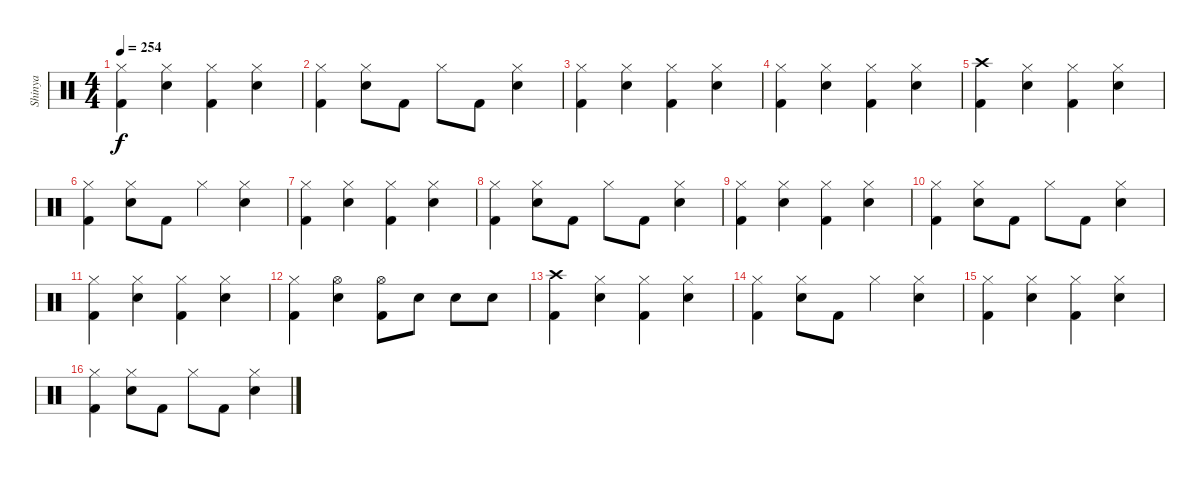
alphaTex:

\track ("Shinya" "Shinya") {instrument percussion}
\staff {score}
\articulation defaults
\ts (4 4)
\tempo 254
\clef neutral
\ks c
("Hi-Hat (closed)" "Kick (hit) 2").4{dy f} ("Electric Snare (hit)" "Hi-Hat (closed)").4 ("Hi-Hat (closed)" "Kick (hit) 2").4 ("Electric Snare (hit)" "Hi-Hat (closed)").4 |
("Hi-Hat (closed)" "Kick (hit) 2").4 ("Electric Snare (hit)" "Hi-Hat (closed)").8 "Kick (hit) 2".8 "Hi-Hat (closed)".8 "Kick (hit) 2".8 ("Electric Snare (hit)" "Hi-Hat (closed)").4 |
("Hi-Hat (closed)" "Kick (hit) 2").4 ("Electric Snare (hit)" "Hi-Hat (closed)").4 ("Hi-Hat (closed)" "Kick (hit) 2").4 ("Electric Snare (hit)" "Hi-Hat (closed)").4 |
("Hi-Hat (closed)" "Kick (hit) 2").4 ("Electric Snare (hit)" "Hi-Hat (closed)").4 ("Hi-Hat (closed)" "Kick (hit) 2").4 ("Electric Snare (hit)" "Hi-Hat (closed)").4 |
("Kick (hit) 2" "Crash high (hit)").4 ("Electric Snare (hit)" "Hi-Hat (closed)").4 ("Hi-Hat (closed)" "Kick (hit) 2").4 ("Electric Snare (hit)" "Hi-Hat (closed)").4 |
("Hi-Hat (closed)" "Kick (hit) 2").4 ("Hi-Hat (closed)" "Electric Snare (hit)").8 "Kick (hit) 2".8 "Hi-Hat (closed)".4 ("Electric Snare (hit)" "Hi-Hat (closed)").4 |
("Hi-Hat (closed)" "Kick (hit) 2").4 ("Electric Snare (hit)" "Hi-Hat (closed)").4 ("Hi-Hat (closed)" "Kick (hit) 2").4 ("Electric Snare (hit)" "Hi-Hat (closed)").4 |
("Hi-Hat (closed)" "Kick (hit) 2").4 ("Electric Snare (hit)" "Hi-Hat (closed)").8 "Kick (hit) 2".8 "Hi-Hat (closed)".8 "Kick (hit) 2".8 ("Electric Snare (hit)" "Hi-Hat (closed)").4 |
("Hi-Hat (closed)" "Kick (hit) 2").4 ("Electric Snare (hit)" "Hi-Hat (closed)").4 ("Hi-Hat (closed)" "Kick (hit) 2").4 ("Electric Snare (hit)" "Hi-Hat (closed)").4 |
("Hi-Hat (closed)" "Kick (hit) 2").4 ("Electric Snare (hit)" "Hi-Hat (closed)").8 "Kick (hit) 2".8 "Hi-Hat (closed)".8 "Kick (hit) 2".8 ("Electric Snare (hit)" "Hi-Hat (closed)").4 |
("Hi-Hat (closed)" "Kick (hit) 2").4 ("Electric Snare (hit)" "Hi-Hat (closed)").4 ("Hi-Hat (closed)" "Kick (hit) 2").4 ("Electric Snare (hit)" "Hi-Hat (closed)").4 |
("Hi-Hat (closed)" "Kick (hit) 2").4 ("Hi-Hat (open)" "Electric Snare (hit)").4 ("Kick (hit) 2" "Hi-Hat (open)").8 "Electric Snare (hit)".8 "Electric Snare (hit)".8 "Electric Snare (hit)".8 |
("Kick (hit) 2" "Crash high (hit)").4 ("Electric Snare (hit)" "Hi-Hat (closed)").4 ("Hi-Hat (closed)" "Kick (hit) 2").4 ("Electric Snare (hit)" "Hi-Hat (closed)").4 |
("Hi-Hat (closed)" "Kick (hit) 2").4 ("Hi-Hat (closed)" "Electric Snare (hit)").8 "Kick (hit) 2".8 "Hi-Hat (closed)".4 ("Electric Snare (hit)" "Hi-Hat (closed)").4 |
("Hi-Hat (closed)" "Kick (hit) 2").4 ("Electric Snare (hit)" "Hi-Hat (closed)").4 ("Hi-Hat (closed)" "Kick (hit) 2").4 ("Electric Snare (hit)" "Hi-Hat (closed)").4 |
("Hi-Hat (closed)" "Kick (hit) 2").4 ("Electric Snare (hit)" "Hi-Hat (closed)").8 "Kick (hit) 2".8 "Hi-Hat (closed)".8 "Kick (hit) 2".8 ("Electric Snare (hit)" "Hi-Hat (closed)").4
